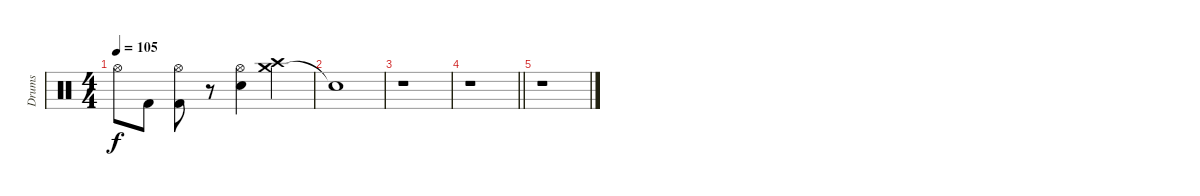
\track ("Drums" "Drums") {instrument percussion}
\staff {score}
\articulation defaults
\ts (4 4)
\tempo 105
\clef neutral
\ks c "Hi-Hat (open)".8{dy f} "Kick (hit) 2".8
("Hi-Hat (open)" "Kick (hit) 2").8 r.8 ("Hi-Hat (open)" "Electric Snare (hit)").4 ("Crash medium (hit)" "Crash high (hit)").4 |
"Snare (hit)"{t}.1 |
r.1 |
\barLineRight lightlight
r.1 |
r.1
